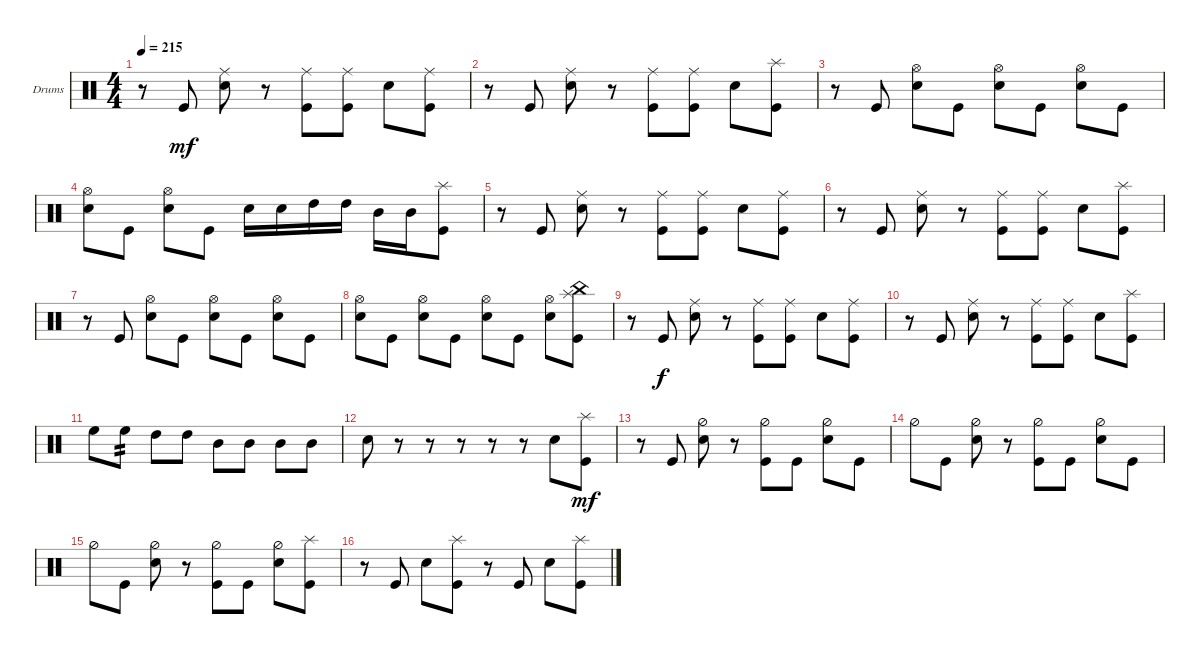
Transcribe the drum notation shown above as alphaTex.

\bracketExtendMode groupsimilarinstruments
\firstSystemTrackNameOrientation horizontal
\otherSystemsTrackNameOrientation horizontal
\track ("Drumkit" "Drums") {instrument percussion}
\staff {score}
\articulation defaults
\ts (4 4)
\tempo 215
\clef neutral
\ks c
r.8{dy mf} "Kick (hit)".8 ("Snare (hit) 2" "Ride (middle)").8 r.8 ("Kick (hit)" "Ride (middle)").8 ("Kick (hit)" "Ride (middle)").8 "Snare (hit) 2".8 ("Kick (hit)" "Ride (middle)").8 |
r.8 "Kick (hit)".8 ("Snare (hit) 2" "Ride (middle)").8 r.8 ("Kick (hit)" "Ride (middle)").8 ("Kick (hit)" "Ride (middle)").8 "Snare (hit) 2".8 ("Kick (hit)" "Splash (hit)").8 |
r.8 "Kick (hit)".8 ("Snare (hit) 2" "Hi-Hat (open)").8 "Kick (hit)".8 ("Snare (hit) 2" "Hi-Hat (open)").8 "Kick (hit)".8 ("Snare (hit) 2" "Hi-Hat (open)").8 "Kick (hit)".8 |
("Snare (hit) 2" "Hi-Hat (open)").8 "Kick (hit)".8 ("Snare (hit) 2" "Hi-Hat (open)").8 "Kick (hit)".8 "Snare (hit) 2".16 "Snare (hit) 2".16 "High Tom (hit)".16 "High Tom (hit)".16 "Mid Tom (hit)".16 "Mid Tom (hit)".16 ("Kick (hit)" "Splash (hit)").8 |
r.8 "Kick (hit)".8 ("Snare (hit) 2" "Ride (middle)").8 r.8 ("Kick (hit)" "Ride (middle)").8 ("Kick (hit)" "Ride (middle)").8 "Snare (hit) 2".8 ("Kick (hit)" "Ride (middle)").8 |
r.8 "Kick (hit)".8 ("Snare (hit) 2" "Ride (middle)").8 r.8 ("Kick (hit)" "Ride (middle)").8 ("Kick (hit)" "Ride (middle)").8 "Snare (hit) 2".8 ("Kick (hit)" "Splash (hit)").8 |
r.8 "Kick (hit)".8 ("Snare (hit) 2" "Hi-Hat (open)").8 "Kick (hit)".8 ("Snare (hit) 2" "Hi-Hat (open)").8 "Kick (hit)".8 ("Snare (hit) 2" "Hi-Hat (open)").8 "Kick (hit)".8 |
("Snare (hit) 2" "Hi-Hat (open)").8 "Kick (hit)".8 ("Snare (hit) 2" "Hi-Hat (open)").8 "Kick (hit)".8 ("Snare (hit) 2" "Hi-Hat (open)").8 "Kick (hit)".8 ("Snare (hit) 2" "Hi-Hat (open)").8 ("Kick (hit)" "China (hit)" "Splash (hit)").8 |
r.8 "Kick (hit)".8{dy f} ("Snare (hit) 2" "Ride (middle)").8 r.8 ("Kick (hit)" "Ride (middle)").8 ("Kick (hit)" "Ride (middle)").8 "Snare (hit) 2".8 ("Kick (hit)" "Ride (middle)").8 |
r.8 "Kick (hit)".8 ("Snare (hit) 2" "Ride (middle)").8 r.8 ("Kick (hit)" "Ride (middle)").8 ("Kick (hit)" "Ride (middle)").8 "Snare (hit) 2".8 ("Kick (hit)" "Splash (hit)").8 |
"High Floor Tom (hit)".8 "High Floor Tom (hit)".8{tp 2} "High Tom (hit)".8 "High Tom (hit)".8 "Mid Tom (hit)".8 "Mid Tom (hit)".8 "Mid Tom (hit)".8 "Mid Tom (hit)".8 |
"Snare (hit) 2".8 r.8 r.8 r.8 r.8 r.8 "Snare (hit) 2".8 ("Kick (hit)" "Splash (hit)").8{dy mf} |
r.8 "Kick (hit)".8 ("Snare (hit) 2" "Hi-Hat (half)").8 r.8 ("Kick (hit)" "Hi-Hat (half)").8 "Kick (hit)".8 ("Snare (hit) 2" "Hi-Hat (half)").8 "Kick (hit)".8 |
"Hi-Hat (half)".8 "Kick (hit)".8 ("Snare (hit) 2" "Hi-Hat (half)").8 r.8 ("Kick (hit)" "Hi-Hat (half)").8 "Kick (hit)".8 ("Snare (hit) 2" "Hi-Hat (half)").8 "Kick (hit)".8 |
"Hi-Hat (half)".8 "Kick (hit)".8 ("Snare (hit) 2" "Hi-Hat (half)").8 r.8 ("Kick (hit)" "Hi-Hat (half)").8 "Kick (hit)".8 ("Snare (hit) 2" "Hi-Hat (half)").8 ("Kick (hit)" "Splash (hit)").8 |
r.8 "Kick (hit)".8 "Snare (hit) 2".8 ("Kick (hit)" "Splash (hit)").8 r.8 "Kick (hit)".8 "Snare (hit) 2".8 ("Kick (hit)" "Splash (hit)").8
